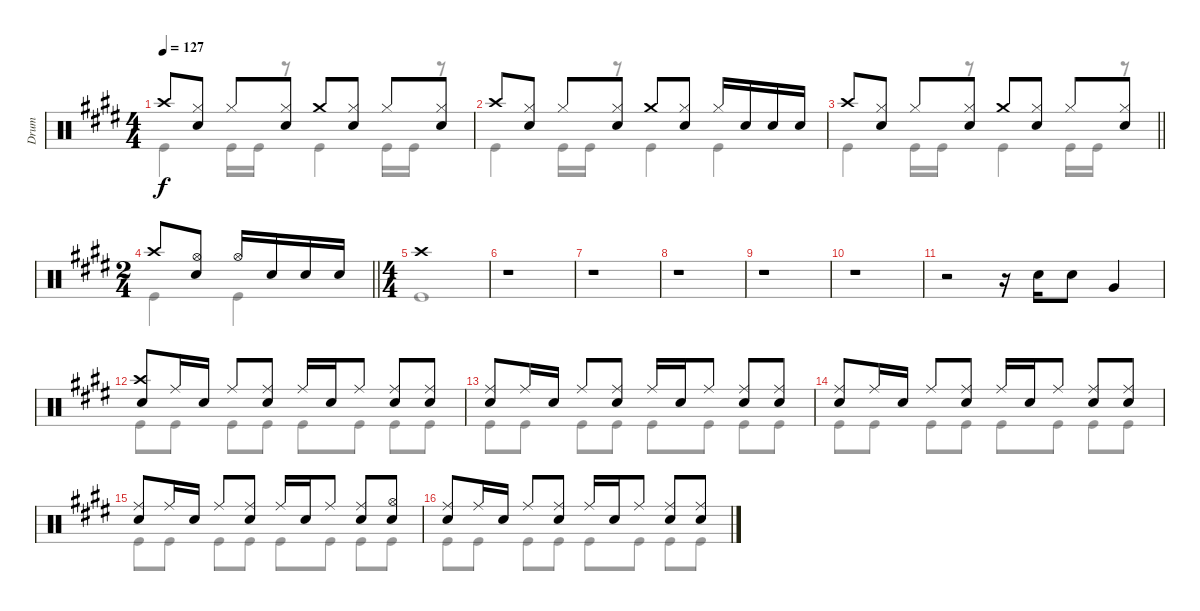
\track ("Drum" "Drum") {instrument percussion}
\staff {score}
\articulation defaults
\voice
\ts (4 4)
\tempo 127
\clef neutral
\ks e "Crash high (hit)".8{dy f}
("Hi-Hat (closed)" "Snare (hit) 2").8 "Hi-Hat (closed)".8 ("Hi-Hat (closed)" "Snare (hit) 2").8 "Crash medium (hit)".8 ("Hi-Hat (closed)" "Snare (hit) 2").8 "Hi-Hat (closed)".8 ("Hi-Hat (closed)" "Snare (hit) 2").8 |
"Crash high (hit)".8 ("Hi-Hat (closed)" "Snare (hit) 2").8 "Hi-Hat (closed)".8 ("Hi-Hat (closed)" "Snare (hit) 2").8 "Crash medium (hit)".8 ("Hi-Hat (closed)" "Snare (hit) 2").8 "Hi-Hat (closed)".16 "Snare (hit) 2".16 "Snare (hit) 2".16 "Snare (hit) 2".16 |
\barLineRight lightlight "Crash high (hit)".8
("Hi-Hat (closed)" "Snare (hit) 2").8 "Hi-Hat (closed)".8 ("Hi-Hat (closed)" "Snare (hit) 2").8 "Crash medium (hit)".8 ("Hi-Hat (closed)" "Snare (hit) 2").8 "Hi-Hat (closed)".8 ("Hi-Hat (closed)" "Snare (hit) 2").8 |
\ts (2 4)
\barLineRight lightlight "Crash high (hit)".8
("Snare (hit) 2" "Hi-Hat (open)").8 "Hi-Hat (open)".16 "Snare (hit) 2".16 "Snare (hit) 2".16 "Snare (hit) 2".16 |
\ts (4 4)
"Crash high (hit)".1 |
r.1 |
r.1 |
r.1 |
r.1 |
r.1 |
r.2 r.16 "Snare (hit) 2".16 "Snare (hit) 2".8 "Very Low Tom (hit)".4 |
("Crash high (hit)" "Snare (hit) 2").8 "Ride (middle)".16 "Snare (hit) 2".16 "Ride (middle)".8 ("Ride (middle)" "Snare (hit) 2").8 "Ride (middle)".16 "Snare (hit) 2".16 "Ride (middle)".8 ("Ride (middle)" "Snare (hit) 2").8 ("Ride (middle)" "Snare (hit) 2").8 |
("Ride (middle)" "Snare (hit) 2").8 "Ride (middle)".16 "Snare (hit) 2".16 "Ride (middle)".8 ("Ride (middle)" "Snare (hit) 2").8 "Ride (middle)".16 "Snare (hit) 2".16 "Ride (middle)".8 ("Ride (middle)" "Snare (hit) 2").8 ("Ride (middle)" "Snare (hit) 2").8 |
("Ride (middle)" "Snare (hit) 2").8 "Ride (middle)".16 "Snare (hit) 2".16 "Ride (middle)".8 ("Ride (middle)" "Snare (hit) 2").8 "Ride (middle)".16 "Snare (hit) 2".16 "Ride (middle)".8 ("Ride (middle)" "Snare (hit) 2").8 ("Ride (middle)" "Snare (hit) 2").8 |
("Ride (middle)" "Snare (hit) 2").8 "Ride (middle)".16 "Snare (hit) 2".16 "Ride (middle)".8 ("Ride (middle)" "Snare (hit) 2").8 "Ride (middle)".16 "Snare (hit) 2".16 "Ride (middle)".8 ("Ride (middle)" "Snare (hit) 2").8 ("Hi-Hat (open)" "Snare (hit) 2").8 |
("Ride (middle)" "Snare (hit) 2").8 "Ride (middle)".16 "Snare (hit) 2".16 "Ride (middle)".8 ("Ride (middle)" "Snare (hit) 2").8 "Ride (middle)".16 "Snare (hit) 2".16 "Ride (middle)".8 ("Ride (middle)" "Snare (hit) 2").8 ("Ride (middle)" "Snare (hit) 2").8
\voice
\clef neutral
\ottava regular
\simile none
\ks e "Kick (hit)".4{dy f} "Kick (hit)".16 "Kick (hit)".16
r.8 "Kick (hit)".4 "Kick (hit)".16 "Kick (hit)".16 r.8 |
"Kick (hit)".4 "Kick (hit)".16 "Kick (hit)".16 r.8 "Kick (hit)".4 "Kick (hit)".4 |
\barLineRight lightlight "Kick (hit)".4 "Kick (hit)".16 "Kick (hit)".16
r.8 "Kick (hit)".4 "Kick (hit)".16 "Kick (hit)".16 r.8 |
\barLineRight lightlight "Kick (hit)".4 "Kick (hit)".4
|
"Kick (hit)".1 |
|
|
|
|
|
|
"Kick (hit)".8 "Kick (hit)".8 "Kick (hit)".8 "Kick (hit)".8 "Kick (hit)".8 "Kick (hit)".8 "Kick (hit)".8 "Kick (hit)".8 |
"Kick (hit)".8 "Kick (hit)".8 "Kick (hit)".8 "Kick (hit)".8 "Kick (hit)".8 "Kick (hit)".8 "Kick (hit)".8 "Kick (hit)".8 |
"Kick (hit)".8 "Kick (hit)".8 "Kick (hit)".8 "Kick (hit)".8 "Kick (hit)".8 "Kick (hit)".8 "Kick (hit)".8 "Kick (hit)".8 |
"Kick (hit)".8 "Kick (hit)".8 "Kick (hit)".8 "Kick (hit)".8 "Kick (hit)".8 "Kick (hit)".8 "Kick (hit)".8 "Kick (hit)".8 |
"Kick (hit)".8 "Kick (hit)".8 "Kick (hit)".8 "Kick (hit)".8 "Kick (hit)".8 "Kick (hit)".8 "Kick (hit)".8 "Kick (hit)".8
